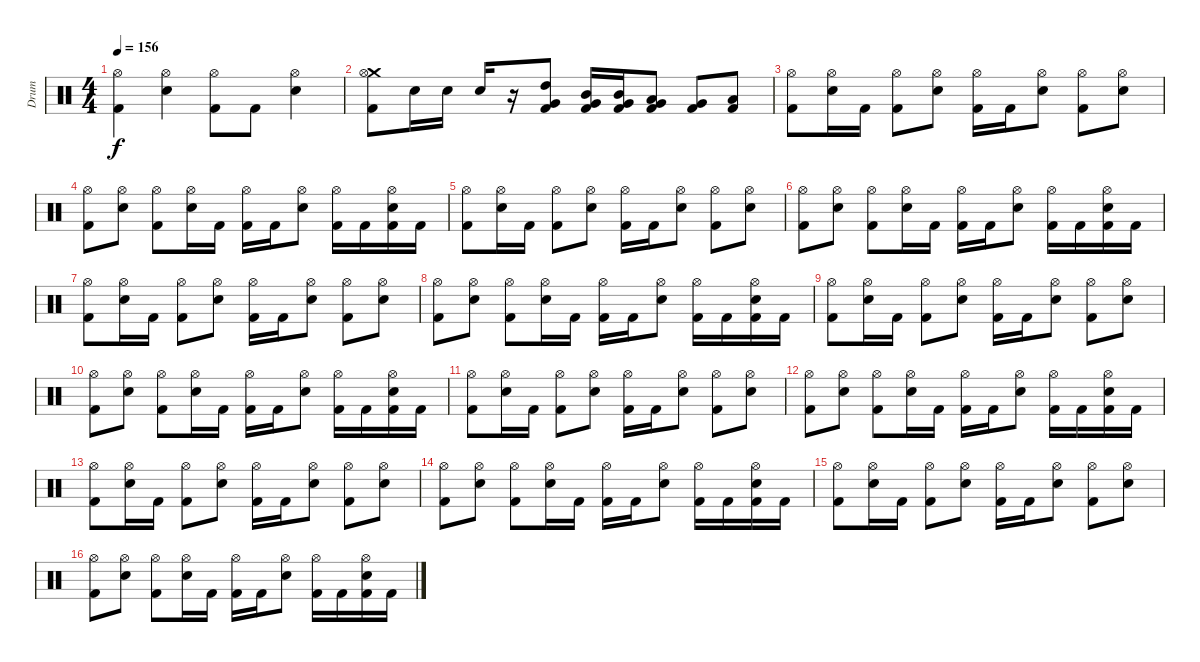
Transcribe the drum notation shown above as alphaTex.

\track (" Drum" " Drum") {instrument percussion}
\staff {score}
\articulation defaults
\ts (4 4)
\tempo 156
\clef neutral
\ks c
("Hi-Hat (open)" "Kick (hit) 2").4{dy f} ("Hi-Hat (open)" "Snare (hit) 2").4 ("Hi-Hat (open)" "Kick (hit) 2").8 "Kick (hit) 2".8 ("Hi-Hat (open)" "Snare (hit) 2").4 |
("Crash medium (hit)" "Hi-Hat (open)" "Kick (hit) 2").8 "Snare (hit) 2".16 "Snare (hit) 2".16 "Snare (hit) 2".16 r.16 ("Very Low Tom (hit)" "High Tom (hit)" "Kick (hit) 2").8 ("Very Low Tom (hit)" "Mid Tom (hit)" "Kick (hit) 2").16 ("Very Low Tom (hit)" "Mid Tom (hit)" "Kick (hit) 2").16 ("Very Low Tom (hit)" "Low Tom (hit)" "Kick (hit) 2").8 ("Very Low Tom (hit)" "Kick (hit) 2").8 ("Low Floor Tom (hit)" "Kick (hit) 2").8 |
("Kick (hit) 2" "Hi-Hat (open)").8 ("Snare (hit) 2" "Hi-Hat (open)").16 "Kick (hit) 2".16 ("Kick (hit) 2" "Hi-Hat (open)").8 ("Snare (hit) 2" "Hi-Hat (open)").8 ("Kick (hit) 2" "Hi-Hat (open)").16 "Kick (hit) 2".16 ("Snare (hit) 2" "Hi-Hat (open)").8 ("Kick (hit) 2" "Hi-Hat (open)").8 ("Snare (hit) 2" "Hi-Hat (open)").8 |
("Kick (hit) 2" "Hi-Hat (open)").8 ("Snare (hit) 2" "Hi-Hat (open)").8 ("Kick (hit) 2" "Hi-Hat (open)").8 ("Snare (hit) 2" "Hi-Hat (open)").16 "Kick (hit) 2".16 ("Kick (hit) 2" "Hi-Hat (open)").16 "Kick (hit) 2".16 ("Snare (hit) 2" "Hi-Hat (open)").8 ("Kick (hit) 2" "Hi-Hat (open)").16 "Kick (hit) 2".16 ("Kick (hit) 2" "Snare (hit) 2" "Hi-Hat (open)").16 "Kick (hit) 2".16 |
("Kick (hit) 2" "Hi-Hat (open)").8 ("Snare (hit) 2" "Hi-Hat (open)").16 "Kick (hit) 2".16 ("Kick (hit) 2" "Hi-Hat (open)").8 ("Snare (hit) 2" "Hi-Hat (open)").8 ("Kick (hit) 2" "Hi-Hat (open)").16 "Kick (hit) 2".16 ("Snare (hit) 2" "Hi-Hat (open)").8 ("Kick (hit) 2" "Hi-Hat (open)").8 ("Snare (hit) 2" "Hi-Hat (open)").8 |
("Kick (hit) 2" "Hi-Hat (open)").8 ("Snare (hit) 2" "Hi-Hat (open)").8 ("Kick (hit) 2" "Hi-Hat (open)").8 ("Snare (hit) 2" "Hi-Hat (open)").16 "Kick (hit) 2".16 ("Kick (hit) 2" "Hi-Hat (open)").16 "Kick (hit) 2".16 ("Snare (hit) 2" "Hi-Hat (open)").8 ("Kick (hit) 2" "Hi-Hat (open)").16 "Kick (hit) 2".16 ("Kick (hit) 2" "Snare (hit) 2" "Hi-Hat (open)").16 "Kick (hit) 2".16 |
("Kick (hit) 2" "Hi-Hat (open)").8 ("Snare (hit) 2" "Hi-Hat (open)").16 "Kick (hit) 2".16 ("Kick (hit) 2" "Hi-Hat (open)").8 ("Snare (hit) 2" "Hi-Hat (open)").8 ("Kick (hit) 2" "Hi-Hat (open)").16 "Kick (hit) 2".16 ("Snare (hit) 2" "Hi-Hat (open)").8 ("Kick (hit) 2" "Hi-Hat (open)").8 ("Snare (hit) 2" "Hi-Hat (open)").8 |
("Kick (hit) 2" "Hi-Hat (open)").8 ("Snare (hit) 2" "Hi-Hat (open)").8 ("Kick (hit) 2" "Hi-Hat (open)").8 ("Snare (hit) 2" "Hi-Hat (open)").16 "Kick (hit) 2".16 ("Kick (hit) 2" "Hi-Hat (open)").16 "Kick (hit) 2".16 ("Snare (hit) 2" "Hi-Hat (open)").8 ("Kick (hit) 2" "Hi-Hat (open)").16 "Kick (hit) 2".16 ("Kick (hit) 2" "Snare (hit) 2" "Hi-Hat (open)").16 "Kick (hit) 2".16 |
("Kick (hit) 2" "Hi-Hat (open)").8 ("Snare (hit) 2" "Hi-Hat (open)").16 "Kick (hit) 2".16 ("Kick (hit) 2" "Hi-Hat (open)").8 ("Snare (hit) 2" "Hi-Hat (open)").8 ("Kick (hit) 2" "Hi-Hat (open)").16 "Kick (hit) 2".16 ("Snare (hit) 2" "Hi-Hat (open)").8 ("Kick (hit) 2" "Hi-Hat (open)").8 ("Snare (hit) 2" "Hi-Hat (open)").8 |
("Kick (hit) 2" "Hi-Hat (open)").8 ("Snare (hit) 2" "Hi-Hat (open)").8 ("Kick (hit) 2" "Hi-Hat (open)").8 ("Snare (hit) 2" "Hi-Hat (open)").16 "Kick (hit) 2".16 ("Kick (hit) 2" "Hi-Hat (open)").16 "Kick (hit) 2".16 ("Snare (hit) 2" "Hi-Hat (open)").8 ("Kick (hit) 2" "Hi-Hat (open)").16 "Kick (hit) 2".16 ("Kick (hit) 2" "Snare (hit) 2" "Hi-Hat (open)").16 "Kick (hit) 2".16 |
("Kick (hit) 2" "Hi-Hat (open)").8 ("Snare (hit) 2" "Hi-Hat (open)").16 "Kick (hit) 2".16 ("Kick (hit) 2" "Hi-Hat (open)").8 ("Snare (hit) 2" "Hi-Hat (open)").8 ("Kick (hit) 2" "Hi-Hat (open)").16 "Kick (hit) 2".16 ("Snare (hit) 2" "Hi-Hat (open)").8 ("Kick (hit) 2" "Hi-Hat (open)").8 ("Snare (hit) 2" "Hi-Hat (open)").8 |
("Kick (hit) 2" "Hi-Hat (open)").8 ("Snare (hit) 2" "Hi-Hat (open)").8 ("Kick (hit) 2" "Hi-Hat (open)").8 ("Snare (hit) 2" "Hi-Hat (open)").16 "Kick (hit) 2".16 ("Kick (hit) 2" "Hi-Hat (open)").16 "Kick (hit) 2".16 ("Snare (hit) 2" "Hi-Hat (open)").8 ("Kick (hit) 2" "Hi-Hat (open)").16 "Kick (hit) 2".16 ("Kick (hit) 2" "Snare (hit) 2" "Hi-Hat (open)").16 "Kick (hit) 2".16 |
("Kick (hit) 2" "Hi-Hat (open)").8 ("Snare (hit) 2" "Hi-Hat (open)").16 "Kick (hit) 2".16 ("Kick (hit) 2" "Hi-Hat (open)").8 ("Snare (hit) 2" "Hi-Hat (open)").8 ("Kick (hit) 2" "Hi-Hat (open)").16 "Kick (hit) 2".16 ("Snare (hit) 2" "Hi-Hat (open)").8 ("Kick (hit) 2" "Hi-Hat (open)").8 ("Snare (hit) 2" "Hi-Hat (open)").8 |
("Kick (hit) 2" "Hi-Hat (open)").8 ("Snare (hit) 2" "Hi-Hat (open)").8 ("Kick (hit) 2" "Hi-Hat (open)").8 ("Snare (hit) 2" "Hi-Hat (open)").16 "Kick (hit) 2".16 ("Kick (hit) 2" "Hi-Hat (open)").16 "Kick (hit) 2".16 ("Snare (hit) 2" "Hi-Hat (open)").8 ("Kick (hit) 2" "Hi-Hat (open)").16 "Kick (hit) 2".16 ("Kick (hit) 2" "Snare (hit) 2" "Hi-Hat (open)").16 "Kick (hit) 2".16 |
("Kick (hit) 2" "Hi-Hat (open)").8 ("Snare (hit) 2" "Hi-Hat (open)").16 "Kick (hit) 2".16 ("Kick (hit) 2" "Hi-Hat (open)").8 ("Snare (hit) 2" "Hi-Hat (open)").8 ("Kick (hit) 2" "Hi-Hat (open)").16 "Kick (hit) 2".16 ("Snare (hit) 2" "Hi-Hat (open)").8 ("Kick (hit) 2" "Hi-Hat (open)").8 ("Snare (hit) 2" "Hi-Hat (open)").8 |
("Kick (hit) 2" "Hi-Hat (open)").8 ("Snare (hit) 2" "Hi-Hat (open)").8 ("Kick (hit) 2" "Hi-Hat (open)").8 ("Snare (hit) 2" "Hi-Hat (open)").16 "Kick (hit) 2".16 ("Kick (hit) 2" "Hi-Hat (open)").16 "Kick (hit) 2".16 ("Snare (hit) 2" "Hi-Hat (open)").8 ("Kick (hit) 2" "Hi-Hat (open)").16 "Kick (hit) 2".16 ("Kick (hit) 2" "Snare (hit) 2" "Hi-Hat (open)").16 "Kick (hit) 2".16
